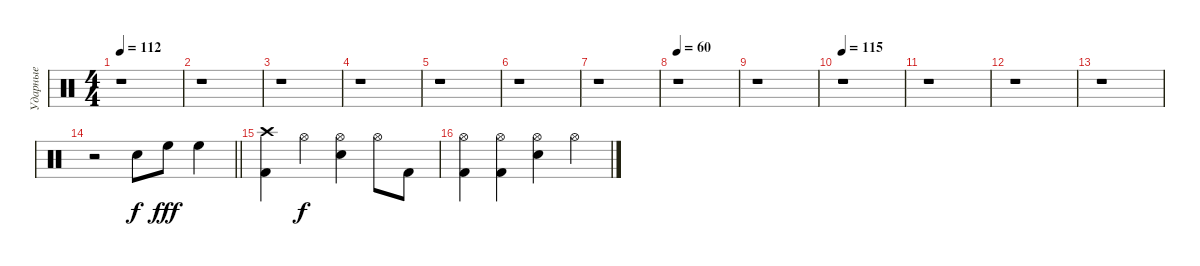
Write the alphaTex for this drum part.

\track ("Ударные" "Ударные") {instrument percussion}
\staff {score}
\articulation defaults
\ts (4 4)
\tempo 112
\clef neutral
\ks c
r.1{dy f} |
r.1 |
r.1 |
r.1 |
r.1 |
r.1 |
r.1 |
\tempo 60
r.1 |
r.1 |
\tempo 115
r.1 |
r.1 |
r.1 |
r.1 |
\barLineRight lightlight
r.2 "Snare (hit) 2".8 "High Floor Tom (hit)".8{dy fff} "High Floor Tom (hit)".4 |
("Kick (hit) 2" "Crash high (hit)").4 "Hi-Hat (open)".4{dy f} ("Snare (hit) 2" "Hi-Hat (open)").4 "Hi-Hat (open)".8 "Kick (hit) 2".8 |
("Kick (hit) 2" "Hi-Hat (open)").4 ("Kick (hit) 2" "Hi-Hat (open)").4 ("Snare (hit) 2" "Hi-Hat (open)").4 "Hi-Hat (open)".4
